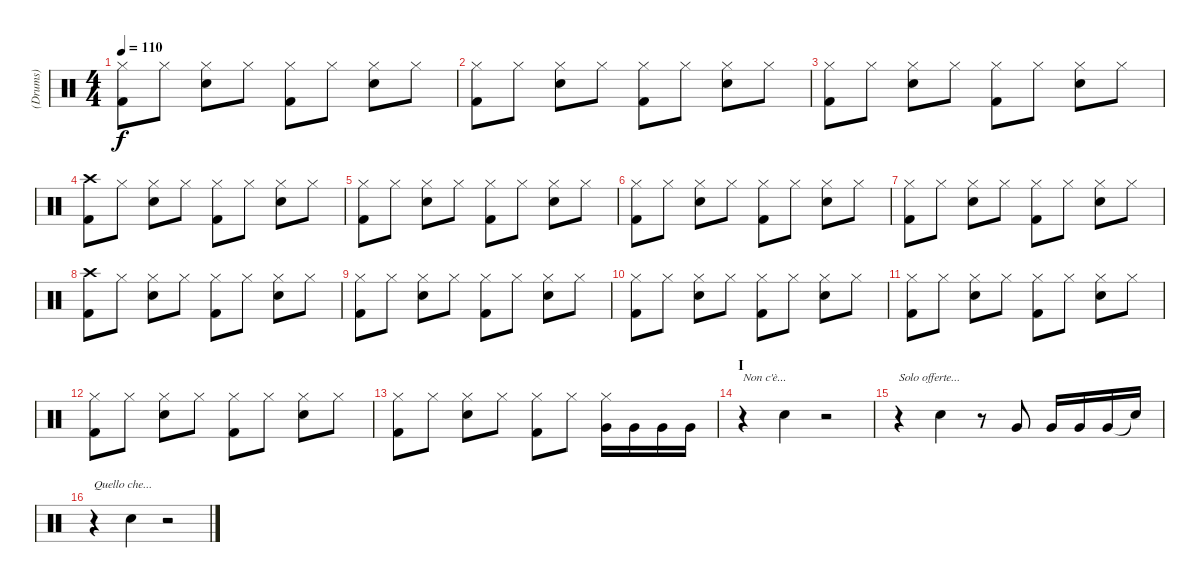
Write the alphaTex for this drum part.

\track ("(Drums)" "(Drums)") {instrument percussion}
\staff {score}
\articulation defaults
\ts (4 4)
\tempo 110
\clef neutral
\ks c
("Hi-Hat (closed)" "Kick (hit) 2").8{dy f} "Hi-Hat (closed)".8 ("Hi-Hat (closed)" "Electric Snare (hit)").8 "Hi-Hat (closed)".8 ("Hi-Hat (closed)" "Kick (hit) 2").8 "Hi-Hat (closed)".8 ("Hi-Hat (closed)" "Electric Snare (hit)").8 "Hi-Hat (closed)".8 |
("Hi-Hat (closed)" "Kick (hit) 2").8 "Hi-Hat (closed)".8 ("Hi-Hat (closed)" "Electric Snare (hit)").8 "Hi-Hat (closed)".8 ("Hi-Hat (closed)" "Kick (hit) 2").8 "Hi-Hat (closed)".8 ("Hi-Hat (closed)" "Electric Snare (hit)").8 "Hi-Hat (closed)".8 |
("Hi-Hat (closed)" "Kick (hit) 2").8 "Hi-Hat (closed)".8 ("Hi-Hat (closed)" "Electric Snare (hit)").8 "Hi-Hat (closed)".8 ("Hi-Hat (closed)" "Kick (hit) 2").8 "Hi-Hat (closed)".8 ("Hi-Hat (closed)" "Electric Snare (hit)").8 "Hi-Hat (closed)".8 |
("Crash high (hit)" "Kick (hit) 2").8 "Hi-Hat (closed)".8 ("Hi-Hat (closed)" "Electric Snare (hit)").8 "Hi-Hat (closed)".8 ("Hi-Hat (closed)" "Kick (hit) 2").8 "Hi-Hat (closed)".8 ("Hi-Hat (closed)" "Electric Snare (hit)").8 "Hi-Hat (closed)".8 |
("Hi-Hat (closed)" "Kick (hit) 2").8 "Hi-Hat (closed)".8 ("Hi-Hat (closed)" "Electric Snare (hit)").8 "Hi-Hat (closed)".8 ("Hi-Hat (closed)" "Kick (hit) 2").8 "Hi-Hat (closed)".8 ("Hi-Hat (closed)" "Electric Snare (hit)").8 "Hi-Hat (closed)".8 |
("Hi-Hat (closed)" "Kick (hit) 2").8 "Hi-Hat (closed)".8 ("Hi-Hat (closed)" "Electric Snare (hit)").8 "Hi-Hat (closed)".8 ("Hi-Hat (closed)" "Kick (hit) 2").8 "Hi-Hat (closed)".8 ("Hi-Hat (closed)" "Electric Snare (hit)").8 "Hi-Hat (closed)".8 |
("Hi-Hat (closed)" "Kick (hit) 2").8 "Hi-Hat (closed)".8 ("Hi-Hat (closed)" "Electric Snare (hit)").8 "Hi-Hat (closed)".8 ("Hi-Hat (closed)" "Kick (hit) 2").8 "Hi-Hat (closed)".8 ("Hi-Hat (closed)" "Electric Snare (hit)").8 "Hi-Hat (closed)".8 |
("Crash high (hit)" "Kick (hit) 2").8 "Hi-Hat (closed)".8 ("Hi-Hat (closed)" "Electric Snare (hit)").8 "Hi-Hat (closed)".8 ("Hi-Hat (closed)" "Kick (hit) 2").8 "Hi-Hat (closed)".8 ("Hi-Hat (closed)" "Electric Snare (hit)").8 "Hi-Hat (closed)".8 |
("Hi-Hat (closed)" "Kick (hit) 2").8 "Hi-Hat (closed)".8 ("Hi-Hat (closed)" "Electric Snare (hit)").8 "Hi-Hat (closed)".8 ("Hi-Hat (closed)" "Kick (hit) 2").8 "Hi-Hat (closed)".8 ("Hi-Hat (closed)" "Electric Snare (hit)").8 "Hi-Hat (closed)".8 |
("Hi-Hat (closed)" "Kick (hit) 2").8 "Hi-Hat (closed)".8 ("Hi-Hat (closed)" "Electric Snare (hit)").8 "Hi-Hat (closed)".8 ("Hi-Hat (closed)" "Kick (hit) 2").8 "Hi-Hat (closed)".8 ("Hi-Hat (closed)" "Electric Snare (hit)").8 "Hi-Hat (closed)".8 |
("Hi-Hat (closed)" "Kick (hit) 2").8 "Hi-Hat (closed)".8 ("Hi-Hat (closed)" "Electric Snare (hit)").8 "Hi-Hat (closed)".8 ("Hi-Hat (closed)" "Kick (hit) 2").8 "Hi-Hat (closed)".8 ("Hi-Hat (closed)" "Electric Snare (hit)").8 "Hi-Hat (closed)".8 |
("Hi-Hat (closed)" "Kick (hit) 2").8 "Hi-Hat (closed)".8 ("Hi-Hat (closed)" "Electric Snare (hit)").8 "Hi-Hat (closed)".8 ("Hi-Hat (closed)" "Kick (hit) 2").8 "Hi-Hat (closed)".8 ("Hi-Hat (closed)" "Electric Snare (hit)").8 "Hi-Hat (closed)".8 |
("Hi-Hat (closed)" "Kick (hit) 2").8 "Hi-Hat (closed)".8 ("Hi-Hat (closed)" "Electric Snare (hit)").8 "Hi-Hat (closed)".8 ("Hi-Hat (closed)" "Kick (hit) 2").8 "Hi-Hat (closed)".8 ("Hi-Hat (closed)" "Very Low Tom (hit)").16 "Very Low Tom (hit)".16 "Very Low Tom (hit)".16 "Very Low Tom (hit)".16 |
\section ("" "I")
r.4{txt "Non c'è..."} "Hand Clap (hit)".4 r.2 |
r.4{txt "Solo offerte..."} "Hand Clap (hit)".4 r.8 "Very Low Tom (hit)".8 "Very Low Tom (hit)".16 "Very Low Tom (hit)".16 "Very Low Tom (hit)".16 "Snare (hit)"{t}.16 |
r.4{txt "Quello che..."} "Hand Clap (hit)".4 r.2
